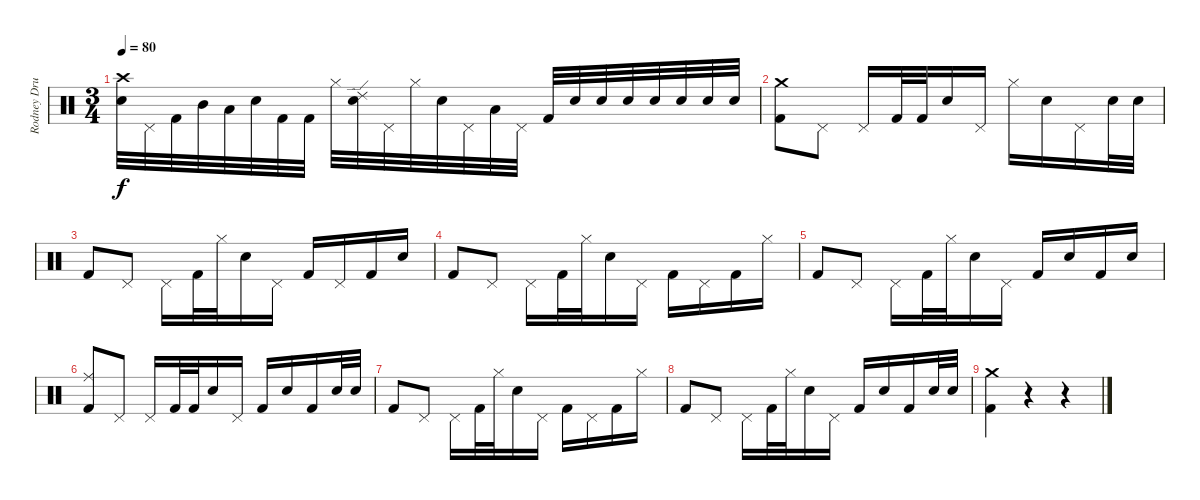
\track ("Rodney Drums" "Rodney Dru") {instrument percussion}
\staff {score}
\articulation defaults
\ts (3 4)
\tempo 80
\clef neutral
\ks c
("Crash high (hit)" "Electric Snare (hit)").32{dy f} "Pedal Hi-Hat (hit)".32 "Kick (hit) 2".32 "Mid Tom (hit)".32 "Low Tom (hit)".32 "Electric Snare (hit)".32 "Kick (hit) 2".32 "Kick (hit) 2".32 "Hi-Hat (closed)".32 ("Electric Snare (hit)" "Ride (edge) 2").32 "Pedal Hi-Hat (hit)".32 "Hi-Hat (closed)".32 "Electric Snare (hit)".32 "Pedal Hi-Hat (hit)".32 "Low Tom (hit)".32 "Pedal Hi-Hat (hit)".32 "Kick (hit) 2".32 "Electric Snare (hit)".32 "Electric Snare (hit)".32 "Electric Snare (hit)".32 "Electric Snare (hit)".32 "Electric Snare (hit)".32 "Electric Snare (hit)".32 "Electric Snare (hit)".32 |
("Crash medium (hit)" "Kick (hit) 2").8 "Pedal Hi-Hat (hit)".8 "Pedal Hi-Hat (hit)".16 "Kick (hit) 2".32 "Kick (hit) 2".32 "Electric Snare (hit)".16 "Pedal Hi-Hat (hit)".16 "Hi-Hat (closed)".16 "Electric Snare (hit)".16 "Pedal Hi-Hat (hit)".16 "Electric Snare (hit)".32 "Electric Snare (hit)".32 |
"Kick (hit) 2".8 "Pedal Hi-Hat (hit)".8 "Pedal Hi-Hat (hit)".16 "Kick (hit) 2".32 "Hi-Hat (closed)".32 "Electric Snare (hit)".16 "Pedal Hi-Hat (hit)".16 "Kick (hit) 2".16 "Pedal Hi-Hat (hit)".16 "Kick (hit) 2".16 "Electric Snare (hit)".16 |
"Kick (hit) 2".8 "Pedal Hi-Hat (hit)".8 "Pedal Hi-Hat (hit)".16 "Kick (hit) 2".32 "Hi-Hat (closed)".32 "Electric Snare (hit)".16 "Pedal Hi-Hat (hit)".16 "Kick (hit) 2".16 "Pedal Hi-Hat (hit)".16 "Kick (hit) 2".16 "Hi-Hat (closed)".16 |
"Kick (hit) 2".8 "Pedal Hi-Hat (hit)".8 "Pedal Hi-Hat (hit)".16 "Kick (hit) 2".32 "Hi-Hat (closed)".32 "Electric Snare (hit)".16 "Pedal Hi-Hat (hit)".16 "Kick (hit) 2".16 "Electric Snare (hit)".16 "Kick (hit) 2".16 "Electric Snare (hit)".16 |
("Ride (middle)" "Kick (hit) 2").8 "Pedal Hi-Hat (hit)".8 "Pedal Hi-Hat (hit)".16 "Kick (hit) 2".32 "Kick (hit) 2".32 "Electric Snare (hit)".16 "Pedal Hi-Hat (hit)".16 "Kick (hit) 2".16 "Electric Snare (hit)".16 "Kick (hit) 2".16 "Electric Snare (hit)".32 "Electric Snare (hit)".32 |
"Kick (hit) 2".8 "Pedal Hi-Hat (hit)".8 "Pedal Hi-Hat (hit)".16 "Kick (hit) 2".32 "Hi-Hat (closed)".32 "Electric Snare (hit)".16 "Pedal Hi-Hat (hit)".16 "Kick (hit) 2".16 "Pedal Hi-Hat (hit)".16 "Kick (hit) 2".16 "Hi-Hat (closed)".16 |
"Kick (hit) 2".8 "Pedal Hi-Hat (hit)".8 "Pedal Hi-Hat (hit)".16 "Kick (hit) 2".32 "Hi-Hat (closed)".32 "Electric Snare (hit)".16 "Pedal Hi-Hat (hit)".16 "Kick (hit) 2".16 "Electric Snare (hit)".16 "Kick (hit) 2".16 "Electric Snare (hit)".32 "Electric Snare (hit)".32 |
("Crash medium (hit)" "Kick (hit) 2").4 r.4 r.4
